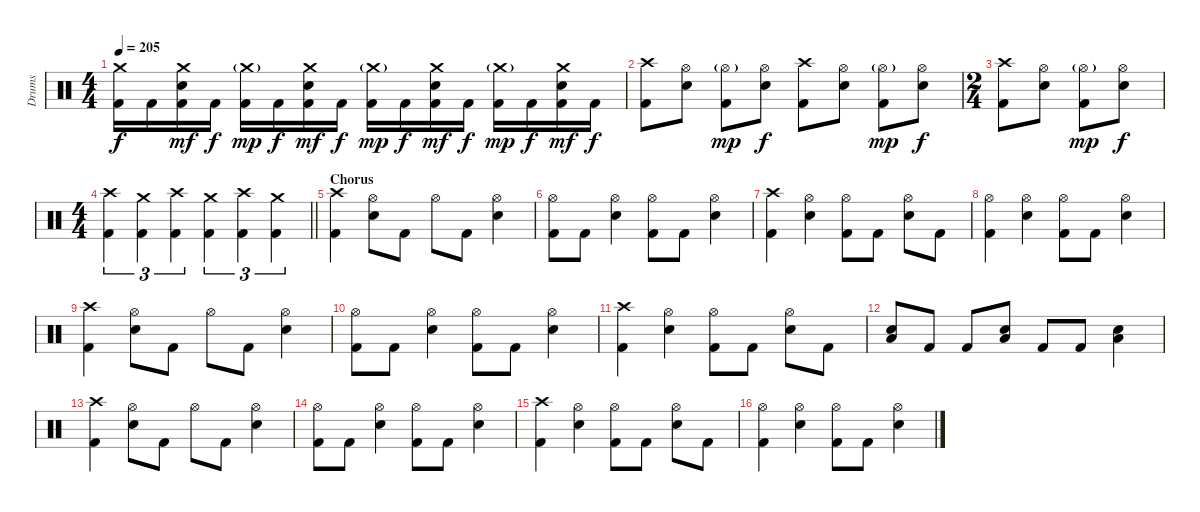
\track ("Drums" "Drums") {instrument percussion}
\staff {score}
\articulation defaults
\ts (4 4)
\tempo 205
\clef neutral
\ks c
("Crash medium (hit)" "Kick (hit) 2").16{dy f} "Kick (hit) 2".16 ("Crash medium (hit)" "Electric Snare (hit)" "Kick (hit) 2").16{dy mf} "Kick (hit) 2".16{dy f} ("Crash medium (hit)"{g} "Kick (hit) 2").16{dy mp} "Kick (hit) 2".16{dy f} ("Crash medium (hit)" "Electric Snare (hit)" "Kick (hit) 2").16{dy mf} "Kick (hit) 2".16{dy f} ("Crash medium (hit)"{g} "Kick (hit) 2").16{dy mp} "Kick (hit) 2".16{dy f} ("Crash medium (hit)" "Electric Snare (hit)" "Kick (hit) 2").16{dy mf} "Kick (hit) 2".16{dy f} ("Crash medium (hit)"{g} "Kick (hit) 2").16{dy mp} "Kick (hit) 2".16{dy f} ("Crash medium (hit)" "Electric Snare (hit)" "Kick (hit) 2").16{dy mf} "Kick (hit) 2".16{dy f} |
("Crash high (hit)" "Kick (hit) 2").8 ("Hi-Hat (open)" "Electric Snare (hit)").8 ("Hi-Hat (open)"{g} "Kick (hit) 2").8{dy mp} ("Hi-Hat (open)" "Electric Snare (hit)").8{dy f} ("Crash high (hit)" "Kick (hit) 2").8 ("Hi-Hat (open)" "Electric Snare (hit)").8 ("Hi-Hat (open)"{g} "Kick (hit) 2").8{dy mp} ("Hi-Hat (open)" "Electric Snare (hit)").8{dy f} |
\ts (2 4)
("Crash high (hit)" "Kick (hit) 2").8 ("Hi-Hat (open)" "Electric Snare (hit)").8 ("Hi-Hat (open)"{g} "Kick (hit) 2").8{dy mp} ("Hi-Hat (open)" "Electric Snare (hit)").8{dy f} |
\ts (4 4)
\barLineRight lightlight
("Crash high (hit)" "Kick (hit) 2").4{tu (3 2)} ("Crash medium (hit)" "Kick (hit) 2").4{tu (3 2)} ("Crash high (hit)" "Kick (hit) 2").4{tu (3 2)} ("Crash medium (hit)" "Kick (hit) 2").4{tu (3 2)} ("Crash high (hit)" "Kick (hit) 2").4{tu (3 2)} ("Crash medium (hit)" "Kick (hit) 2").4{tu (3 2)} |
\section ("" "Chorus")
("Crash high (hit)" "Kick (hit) 2").4 ("Hi-Hat (open)" "Electric Snare (hit)").8 "Kick (hit) 2".8 "Hi-Hat (open)".8 "Kick (hit) 2".8 ("Hi-Hat (open)" "Electric Snare (hit)").4 |
("Hi-Hat (open)" "Kick (hit) 2").8 "Kick (hit) 2".8 ("Hi-Hat (open)" "Electric Snare (hit)").4 ("Hi-Hat (open)" "Kick (hit) 2").8 "Kick (hit) 2".8 ("Hi-Hat (open)" "Electric Snare (hit)").4 |
("Crash high (hit)" "Kick (hit) 2").4 ("Hi-Hat (open)" "Electric Snare (hit)").4 ("Hi-Hat (open)" "Kick (hit) 2").8 "Kick (hit) 2".8 ("Hi-Hat (open)" "Electric Snare (hit)").8 "Kick (hit) 2".8 |
("Hi-Hat (open)" "Kick (hit) 2").4 ("Hi-Hat (open)" "Electric Snare (hit)").4 ("Hi-Hat (open)" "Kick (hit) 2").8 "Kick (hit) 2".8 ("Hi-Hat (open)" "Electric Snare (hit)").4 |
("Crash high (hit)" "Kick (hit) 2").4 ("Hi-Hat (open)" "Electric Snare (hit)").8 "Kick (hit) 2".8 "Hi-Hat (open)".8 "Kick (hit) 2".8 ("Hi-Hat (open)" "Electric Snare (hit)").4 |
("Hi-Hat (open)" "Kick (hit) 2").8 "Kick (hit) 2".8 ("Hi-Hat (open)" "Electric Snare (hit)").4 ("Hi-Hat (open)" "Kick (hit) 2").8 "Kick (hit) 2".8 ("Hi-Hat (open)" "Electric Snare (hit)").4 |
("Crash high (hit)" "Kick (hit) 2").4 ("Hi-Hat (open)" "Electric Snare (hit)").4 ("Hi-Hat (open)" "Kick (hit) 2").8 "Kick (hit) 2".8 ("Hi-Hat (open)" "Electric Snare (hit)").8 "Kick (hit) 2".8 |
("Electric Snare (hit)" "Low Tom (hit)").8 "Kick (hit) 2".8 "Kick (hit) 2".8 ("Electric Snare (hit)" "Low Tom (hit)").8 "Kick (hit) 2".8 "Kick (hit) 2".8 ("Electric Snare (hit)" "Low Tom (hit)").4 |
("Crash high (hit)" "Kick (hit) 2").4 ("Hi-Hat (open)" "Electric Snare (hit)").8 "Kick (hit) 2".8 "Hi-Hat (open)".8 "Kick (hit) 2".8 ("Hi-Hat (open)" "Electric Snare (hit)").4 |
("Hi-Hat (open)" "Kick (hit) 2").8 "Kick (hit) 2".8 ("Hi-Hat (open)" "Electric Snare (hit)").4 ("Hi-Hat (open)" "Kick (hit) 2").8 "Kick (hit) 2".8 ("Hi-Hat (open)" "Electric Snare (hit)").4 |
("Crash high (hit)" "Kick (hit) 2").4 ("Hi-Hat (open)" "Electric Snare (hit)").4 ("Hi-Hat (open)" "Kick (hit) 2").8 "Kick (hit) 2".8 ("Hi-Hat (open)" "Electric Snare (hit)").8 "Kick (hit) 2".8 |
("Hi-Hat (open)" "Kick (hit) 2").4 ("Hi-Hat (open)" "Electric Snare (hit)").4 ("Hi-Hat (open)" "Kick (hit) 2").8 "Kick (hit) 2".8 ("Hi-Hat (open)" "Electric Snare (hit)").4
